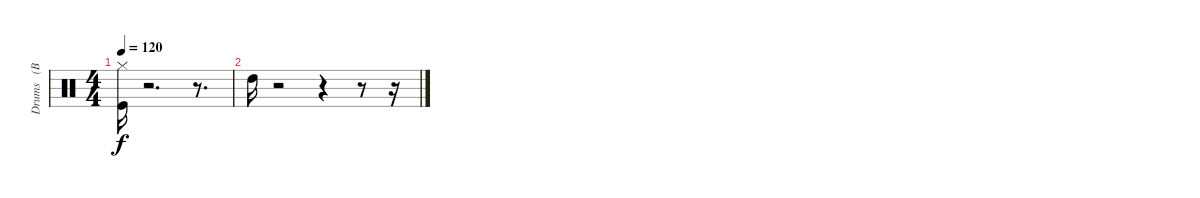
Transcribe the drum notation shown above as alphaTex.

\track ("Drums   (BB)" "Drums   (B") {instrument percussion}
\staff {score}
\articulation defaults
\ts (4 4)
\tempo 120
\clef neutral
\ks c
("Kick (hit)" "Hi-Hat (closed)").16{dy f} r.2{d} r.8{d} |
"High Tom (hit)".16 r.2 r.4 r.8 r.16
